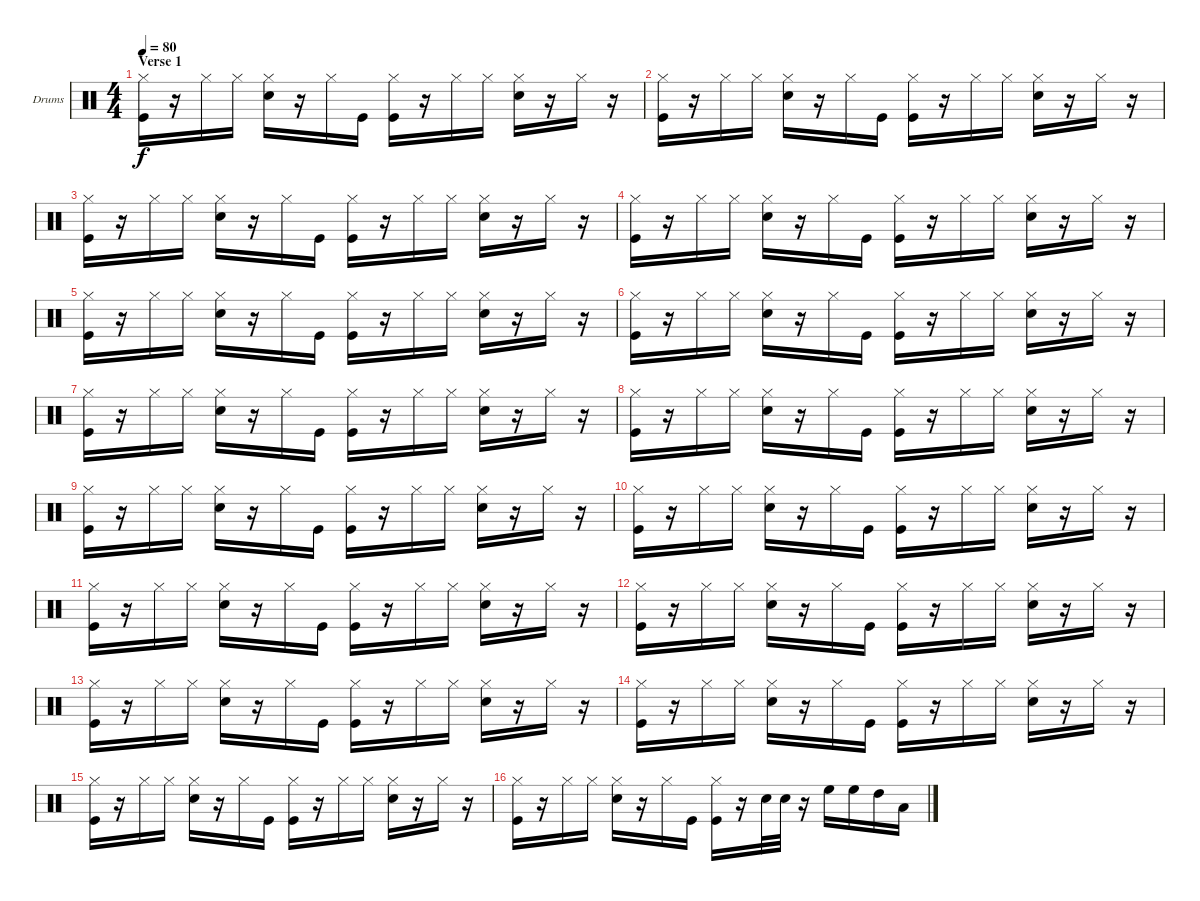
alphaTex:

\bracketExtendMode groupsimilarinstruments
\firstSystemTrackNameOrientation horizontal
\otherSystemsTrackNameOrientation horizontal
\track ("Drumkit" "Drums") {instrument percussion}
\staff {score}
\articulation defaults
\ts (4 4)
\section ("" "Verse 1")
\tempo 80
\clef neutral
\ks c
("Kick (hit)" "Hi-Hat (closed)").16{dy f} r.16 "Hi-Hat (closed)".16 "Hi-Hat (closed)".16 ("Snare (hit) 2" "Hi-Hat (closed)").16 r.16 "Hi-Hat (closed)".16 "Kick (hit)".16 ("Kick (hit)" "Hi-Hat (closed)").16 r.16 "Hi-Hat (closed)".16 "Hi-Hat (closed)".16 ("Snare (hit) 2" "Hi-Hat (closed)").16 r.16 "Hi-Hat (closed)".16 r.16 |
("Kick (hit)" "Hi-Hat (closed)").16 r.16 "Hi-Hat (closed)".16 "Hi-Hat (closed)".16 ("Snare (hit) 2" "Hi-Hat (closed)").16 r.16 "Hi-Hat (closed)".16 "Kick (hit)".16 ("Kick (hit)" "Hi-Hat (closed)").16 r.16 "Hi-Hat (closed)".16 "Hi-Hat (closed)".16 ("Snare (hit) 2" "Hi-Hat (closed)").16 r.16 "Hi-Hat (closed)".16 r.16 |
("Kick (hit)" "Hi-Hat (closed)").16 r.16 "Hi-Hat (closed)".16 "Hi-Hat (closed)".16 ("Snare (hit) 2" "Hi-Hat (closed)").16 r.16 "Hi-Hat (closed)".16 "Kick (hit)".16 ("Kick (hit)" "Hi-Hat (closed)").16 r.16 "Hi-Hat (closed)".16 "Hi-Hat (closed)".16 ("Snare (hit) 2" "Hi-Hat (closed)").16 r.16 "Hi-Hat (closed)".16 r.16 |
("Kick (hit)" "Hi-Hat (closed)").16 r.16 "Hi-Hat (closed)".16 "Hi-Hat (closed)".16 ("Snare (hit) 2" "Hi-Hat (closed)").16 r.16 "Hi-Hat (closed)".16 "Kick (hit)".16 ("Kick (hit)" "Hi-Hat (closed)").16 r.16 "Hi-Hat (closed)".16 "Hi-Hat (closed)".16 ("Snare (hit) 2" "Hi-Hat (closed)").16 r.16 "Hi-Hat (closed)".16 r.16 |
("Kick (hit)" "Hi-Hat (closed)").16 r.16 "Hi-Hat (closed)".16 "Hi-Hat (closed)".16 ("Snare (hit) 2" "Hi-Hat (closed)").16 r.16 "Hi-Hat (closed)".16 "Kick (hit)".16 ("Kick (hit)" "Hi-Hat (closed)").16 r.16 "Hi-Hat (closed)".16 "Hi-Hat (closed)".16 ("Snare (hit) 2" "Hi-Hat (closed)").16 r.16 "Hi-Hat (closed)".16 r.16 |
("Kick (hit)" "Hi-Hat (closed)").16 r.16 "Hi-Hat (closed)".16 "Hi-Hat (closed)".16 ("Snare (hit) 2" "Hi-Hat (closed)").16 r.16 "Hi-Hat (closed)".16 "Kick (hit)".16 ("Kick (hit)" "Hi-Hat (closed)").16 r.16 "Hi-Hat (closed)".16 "Hi-Hat (closed)".16 ("Snare (hit) 2" "Hi-Hat (closed)").16 r.16 "Hi-Hat (closed)".16 r.16 |
("Kick (hit)" "Hi-Hat (closed)").16 r.16 "Hi-Hat (closed)".16 "Hi-Hat (closed)".16 ("Snare (hit) 2" "Hi-Hat (closed)").16 r.16 "Hi-Hat (closed)".16 "Kick (hit)".16 ("Kick (hit)" "Hi-Hat (closed)").16 r.16 "Hi-Hat (closed)".16 "Hi-Hat (closed)".16 ("Snare (hit) 2" "Hi-Hat (closed)").16 r.16 "Hi-Hat (closed)".16 r.16 |
("Kick (hit)" "Hi-Hat (closed)").16 r.16 "Hi-Hat (closed)".16 "Hi-Hat (closed)".16 ("Snare (hit) 2" "Hi-Hat (closed)").16 r.16 "Hi-Hat (closed)".16 "Kick (hit)".16 ("Kick (hit)" "Hi-Hat (closed)").16 r.16 "Hi-Hat (closed)".16 "Hi-Hat (closed)".16 ("Snare (hit) 2" "Hi-Hat (closed)").16 r.16 "Hi-Hat (closed)".16 r.16 |
("Kick (hit)" "Hi-Hat (closed)").16 r.16 "Hi-Hat (closed)".16 "Hi-Hat (closed)".16 ("Snare (hit) 2" "Hi-Hat (closed)").16 r.16 "Hi-Hat (closed)".16 "Kick (hit)".16 ("Kick (hit)" "Hi-Hat (closed)").16 r.16 "Hi-Hat (closed)".16 "Hi-Hat (closed)".16 ("Snare (hit) 2" "Hi-Hat (closed)").16 r.16 "Hi-Hat (closed)".16 r.16 |
("Kick (hit)" "Hi-Hat (closed)").16 r.16 "Hi-Hat (closed)".16 "Hi-Hat (closed)".16 ("Snare (hit) 2" "Hi-Hat (closed)").16 r.16 "Hi-Hat (closed)".16 "Kick (hit)".16 ("Kick (hit)" "Hi-Hat (closed)").16 r.16 "Hi-Hat (closed)".16 "Hi-Hat (closed)".16 ("Snare (hit) 2" "Hi-Hat (closed)").16 r.16 "Hi-Hat (closed)".16 r.16 |
("Kick (hit)" "Hi-Hat (closed)").16 r.16 "Hi-Hat (closed)".16 "Hi-Hat (closed)".16 ("Snare (hit) 2" "Hi-Hat (closed)").16 r.16 "Hi-Hat (closed)".16 "Kick (hit)".16 ("Kick (hit)" "Hi-Hat (closed)").16 r.16 "Hi-Hat (closed)".16 "Hi-Hat (closed)".16 ("Snare (hit) 2" "Hi-Hat (closed)").16 r.16 "Hi-Hat (closed)".16 r.16 |
("Kick (hit)" "Hi-Hat (closed)").16 r.16 "Hi-Hat (closed)".16 "Hi-Hat (closed)".16 ("Snare (hit) 2" "Hi-Hat (closed)").16 r.16 "Hi-Hat (closed)".16 "Kick (hit)".16 ("Kick (hit)" "Hi-Hat (closed)").16 r.16 "Hi-Hat (closed)".16 "Hi-Hat (closed)".16 ("Snare (hit) 2" "Hi-Hat (closed)").16 r.16 "Hi-Hat (closed)".16 r.16 |
("Kick (hit)" "Hi-Hat (closed)").16 r.16 "Hi-Hat (closed)".16 "Hi-Hat (closed)".16 ("Snare (hit) 2" "Hi-Hat (closed)").16 r.16 "Hi-Hat (closed)".16 "Kick (hit)".16 ("Kick (hit)" "Hi-Hat (closed)").16 r.16 "Hi-Hat (closed)".16 "Hi-Hat (closed)".16 ("Snare (hit) 2" "Hi-Hat (closed)").16 r.16 "Hi-Hat (closed)".16 r.16 |
("Kick (hit)" "Hi-Hat (closed)").16 r.16 "Hi-Hat (closed)".16 "Hi-Hat (closed)".16 ("Snare (hit) 2" "Hi-Hat (closed)").16 r.16 "Hi-Hat (closed)".16 "Kick (hit)".16 ("Kick (hit)" "Hi-Hat (closed)").16 r.16 "Hi-Hat (closed)".16 "Hi-Hat (closed)".16 ("Snare (hit) 2" "Hi-Hat (closed)").16 r.16 "Hi-Hat (closed)".16 r.16 |
("Kick (hit)" "Hi-Hat (closed)").16 r.16 "Hi-Hat (closed)".16 "Hi-Hat (closed)".16 ("Snare (hit) 2" "Hi-Hat (closed)").16 r.16 "Hi-Hat (closed)".16 "Kick (hit)".16 ("Kick (hit)" "Hi-Hat (closed)").16 r.16 "Hi-Hat (closed)".16 "Hi-Hat (closed)".16 ("Snare (hit) 2" "Hi-Hat (closed)").16 r.16 "Hi-Hat (closed)".16 r.16 |
("Kick (hit)" "Hi-Hat (closed)").16 r.16 "Hi-Hat (closed)".16 "Hi-Hat (closed)".16 ("Snare (hit) 2" "Hi-Hat (closed)").16 r.16 "Hi-Hat (closed)".16 "Kick (hit)".16 ("Kick (hit)" "Hi-Hat (closed)").16 r.16 "Snare (hit) 2".32 "Snare (hit) 2".32 r.16 "High Floor Tom (hit)".16 "High Floor Tom (hit)".16 "High Tom (hit)".16 "Low Tom (hit)".16
